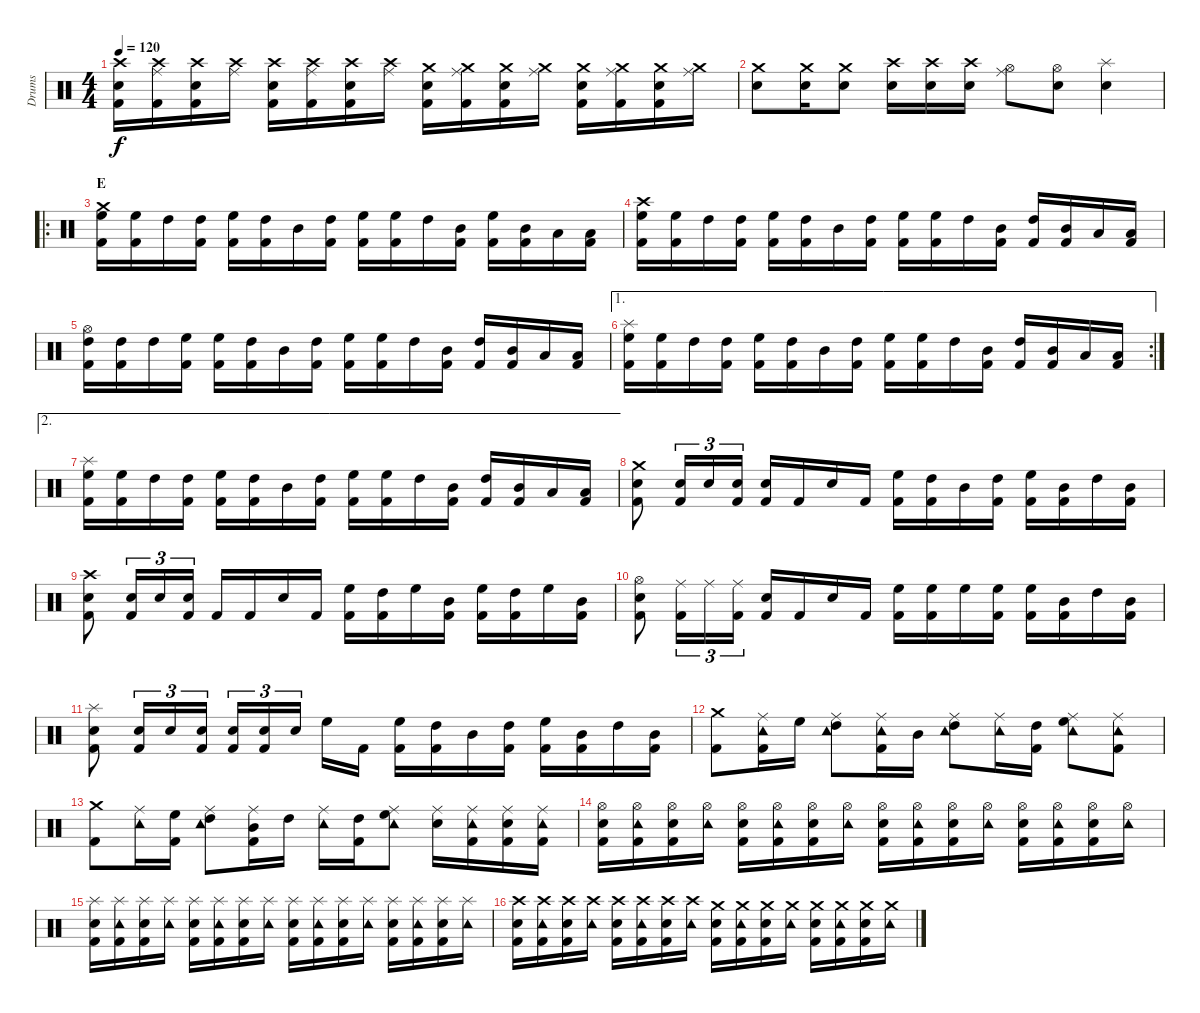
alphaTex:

\track ("Drums" "Drums") {instrument percussion}
\staff {score}
\articulation defaults
\ts (4 4)
\tempo 120
\clef neutral
\ks c
("Crash high (hit)" "Electric Snare (hit)" "Kick (hit) 2").16{dy f} ("Crash high (hit)" "Ride (middle)" "Kick (hit) 2").16 ("Crash high (hit)" "Electric Snare (hit)" "Kick (hit) 2").16 ("Crash high (hit)" "Ride (middle)").16 ("Crash high (hit)" "Electric Snare (hit)" "Kick (hit) 2").16 ("Crash high (hit)" "Ride (middle)" "Kick (hit) 2").16 ("Crash high (hit)" "Electric Snare (hit)" "Kick (hit) 2").16 ("Crash high (hit)" "Ride (middle)").16 ("Crash medium (hit)" "Electric Snare (hit)" "Kick (hit) 2").16 ("Crash medium (hit)" "Ride (middle)" "Kick (hit) 2").16 ("Crash medium (hit)" "Electric Snare (hit)" "Kick (hit) 2").16 ("Crash medium (hit)" "Ride (middle)").16 ("Crash medium (hit)" "Electric Snare (hit)" "Kick (hit) 2").16 ("Crash medium (hit)" "Ride (middle)" "Kick (hit) 2").16 ("Crash medium (hit)" "Electric Snare (hit)" "Kick (hit) 2").16 ("Crash medium (hit)" "Ride (middle)").16 |
("Crash medium (hit)" "Electric Snare (hit)").8 ("Crash medium (hit)" "Snare (hit) 2").16 ("Crash medium (hit)" "Electric Snare (hit)").8 ("Crash high (hit)" "Electric Snare (hit)").16 ("Crash high (hit)" "Snare (hit) 2").16 ("Crash high (hit)" "Electric Snare (hit)").16 ("Hi-Hat (open)" "Ride (middle)").8 ("Hi-Hat (open)" "Electric Snare (hit)").8 ("Splash (hit)" "Electric Snare (hit)").4 |
\ro
\section ("" "E")
("Crash medium (hit)" "High Floor Tom (hit)" "Kick (hit) 2").16 ("High Floor Tom (hit)" "Kick (hit) 2").16 "High Tom (hit)".16 ("High Tom (hit)" "Kick (hit) 2").16 ("High Floor Tom (hit)" "Kick (hit) 2").16 ("High Tom (hit)" "Kick (hit) 2").16 "Mid Tom (hit)".16 ("High Tom (hit)" "Kick (hit) 2").16 ("High Floor Tom (hit)" "Kick (hit) 2").16 ("High Floor Tom (hit)" "Kick (hit) 2").16 "High Tom (hit)".16 ("Mid Tom (hit)" "Kick (hit) 2").16 ("High Floor Tom (hit)" "Kick (hit) 2").16 ("Mid Tom (hit)" "Kick (hit) 2").16 "Low Tom (hit)".16 ("Low Floor Tom (hit)" "Kick (hit) 2").16 |
("Crash high (hit)" "High Floor Tom (hit)" "Kick (hit) 2").16 ("High Floor Tom (hit)" "Kick (hit) 2").16 "High Tom (hit)".16 ("High Tom (hit)" "Kick (hit) 2").16 ("High Floor Tom (hit)" "Kick (hit) 2").16 ("High Tom (hit)" "Kick (hit) 2").16 "Mid Tom (hit)".16 ("High Tom (hit)" "Kick (hit) 2").16 ("High Floor Tom (hit)" "Kick (hit) 2").16 ("High Floor Tom (hit)" "Kick (hit) 2").16 "High Tom (hit)".16 ("Mid Tom (hit)" "Kick (hit) 2").16 ("High Tom (hit)" "Kick (hit) 2").16 ("Mid Tom (hit)" "Kick (hit) 2").16 "Low Tom (hit)".16 ("Low Floor Tom (hit)" "Kick (hit) 2").16 |
("Hi-Hat (open)" "High Tom (hit)" "Kick (hit) 2").16 ("High Tom (hit)" "Kick (hit) 2").16 "High Tom (hit)".16 ("High Floor Tom (hit)" "Kick (hit) 2").16 ("High Floor Tom (hit)" "Kick (hit) 2").16 ("High Tom (hit)" "Kick (hit) 2").16 "Mid Tom (hit)".16 ("High Tom (hit)" "Kick (hit) 2").16 ("High Floor Tom (hit)" "Kick (hit) 2").16 ("High Floor Tom (hit)" "Kick (hit) 2").16 "High Tom (hit)".16 ("Mid Tom (hit)" "Kick (hit) 2").16 ("High Tom (hit)" "Kick (hit) 2").16 ("Mid Tom (hit)" "Kick (hit) 2").16 "Low Tom (hit)".16 ("Low Floor Tom (hit)" "Kick (hit) 2").16 |
\ae 1
\rc 2
("Splash (hit)" "High Floor Tom (hit)" "Kick (hit) 2").16 ("High Floor Tom (hit)" "Kick (hit) 2").16 "High Tom (hit)".16 ("High Tom (hit)" "Kick (hit) 2").16 ("High Floor Tom (hit)" "Kick (hit) 2").16 ("High Tom (hit)" "Kick (hit) 2").16 "Mid Tom (hit)".16 ("High Tom (hit)" "Kick (hit) 2").16 ("High Floor Tom (hit)" "Kick (hit) 2").16 ("High Floor Tom (hit)" "Kick (hit) 2").16 "High Tom (hit)".16 ("Mid Tom (hit)" "Kick (hit) 2").16 ("High Tom (hit)" "Kick (hit) 2").16 ("Mid Tom (hit)" "Kick (hit) 2").16 "Low Tom (hit)".16 ("Low Floor Tom (hit)" "Kick (hit) 2").16 |
\ae 2
("Splash (hit)" "High Floor Tom (hit)" "Kick (hit) 2").16 ("High Floor Tom (hit)" "Kick (hit) 2").16 "High Tom (hit)".16 ("High Tom (hit)" "Kick (hit) 2").16 ("High Floor Tom (hit)" "Kick (hit) 2").16 ("High Tom (hit)" "Kick (hit) 2").16 "Mid Tom (hit)".16 ("High Tom (hit)" "Kick (hit) 2").16 ("High Floor Tom (hit)" "Kick (hit) 2").16 ("High Floor Tom (hit)" "Kick (hit) 2").16 "High Tom (hit)".16 ("Mid Tom (hit)" "Kick (hit) 2").16 ("High Tom (hit)" "Kick (hit) 2").16 ("Mid Tom (hit)" "Kick (hit) 2").16 "Low Tom (hit)".16 ("Low Floor Tom (hit)" "Kick (hit) 2").16 |
("Crash medium (hit)" "Electric Snare (hit)" "Kick (hit) 2").8 ("Electric Snare (hit)" "Kick (hit) 2").16{tu (3 2)} "Electric Snare (hit)".16{tu (3 2)} ("Electric Snare (hit)" "Kick (hit) 2").16{tu (3 2)} ("Electric Snare (hit)" "Kick (hit) 2").16 "Kick (hit) 2".16 "Electric Snare (hit)".16 "Kick (hit) 2".16 ("High Floor Tom (hit)" "Kick (hit) 2").16 ("High Tom (hit)" "Kick (hit) 2").16 "Mid Tom (hit)".16 ("High Tom (hit)" "Kick (hit) 2").16 ("High Floor Tom (hit)" "Kick (hit) 2").16 ("Mid Tom (hit)" "Kick (hit) 2").16 "High Tom (hit)".16 ("Mid Tom (hit)" "Kick (hit) 2").16 |
("Crash high (hit)" "Electric Snare (hit)" "Kick (hit) 2").8 ("Electric Snare (hit)" "Kick (hit) 2").16{tu (3 2)} "Snare (hit) 2".16{tu (3 2)} ("Electric Snare (hit)" "Kick (hit) 2").16{tu (3 2)} "Kick (hit) 2".16 "Kick (hit) 2".16 "Electric Snare (hit)".16 "Kick (hit) 2".16 ("High Floor Tom (hit)" "Kick (hit) 2").16 ("High Tom (hit)" "Kick (hit) 2").16 "High Floor Tom (hit)".16 ("Mid Tom (hit)" "Kick (hit) 2").16 ("High Floor Tom (hit)" "Kick (hit) 2").16 ("High Tom (hit)" "Kick (hit) 2").16 "High Floor Tom (hit)".16 ("Mid Tom (hit)" "Kick (hit) 2").16 |
("Hi-Hat (open)" "Electric Snare (hit)" "Kick (hit) 2").8 ("Ride (middle)" "Kick (hit) 2").16{tu (3 2)} "Ride (middle)".16{tu (3 2)} ("Ride (middle)" "Kick (hit) 2").16{tu (3 2)} ("Electric Snare (hit)" "Kick (hit) 2").16 "Kick (hit) 2".16 "Electric Snare (hit)".16 "Kick (hit) 2".16 ("High Floor Tom (hit)" "Kick (hit) 2").16 ("High Floor Tom (hit)" "Kick (hit) 2").16 "High Floor Tom (hit)".16 ("High Floor Tom (hit)" "Kick (hit) 2").16 ("High Floor Tom (hit)" "Kick (hit) 2").16 ("Mid Tom (hit)" "Kick (hit) 2").16 "High Tom (hit)".16 ("Mid Tom (hit)" "Kick (hit) 2").16 |
("Splash (hit)" "Electric Snare (hit)" "Kick (hit) 2").8 ("Electric Snare (hit)" "Kick (hit) 2").16{tu (3 2)} "Electric Snare (hit)".16{tu (3 2)} ("Electric Snare (hit)" "Kick (hit) 2").16{tu (3 2)} ("Electric Snare (hit)" "Kick (hit) 2").16{tu (3 2)} ("Electric Snare (hit)" "Kick (hit) 2").16{tu (3 2)} "Electric Snare (hit)".16{tu (3 2)} "High Floor Tom (hit)".16 "Kick (hit) 2".16 ("High Floor Tom (hit)" "Kick (hit) 2").16 ("High Tom (hit)" "Kick (hit) 2").16 "Mid Tom (hit)".16 ("High Tom (hit)" "Kick (hit) 2").16 ("High Floor Tom (hit)" "Kick (hit) 2").16 ("Mid Tom (hit)" "Kick (hit) 2").16 "High Tom (hit)".16 ("Mid Tom (hit)" "Kick (hit) 2").16 |
("Crash medium (hit)" "Kick (hit) 2").8 ("Ride (middle)" "Tambourine (hit)" "Kick (hit) 2").16 "High Floor Tom (hit)".16 ("Ride (middle)" "High Tom (hit)" "Tambourine (hit)").8 ("Ride (middle)" "Tambourine (hit)" "Kick (hit) 2").16 "Mid Tom (hit)".16 ("Ride (middle)" "High Tom (hit)" "Tambourine (hit)").8 ("Ride (middle)" "Tambourine (hit)").16 ("High Tom (hit)" "Kick (hit) 2").16 ("Ride (middle)" "High Floor Tom (hit)" "Tambourine (hit)").8 ("Ride (middle)" "Tambourine (hit)" "Kick (hit) 2").8 |
("Crash medium (hit)" "Kick (hit) 2").8 ("Ride (middle)" "Tambourine (hit)").16 ("High Floor Tom (hit)" "Kick (hit) 2").16 ("Ride (middle)" "High Tom (hit)" "Tambourine (hit)").8 ("Ride (middle)" "Mid Tom (hit)" "Kick (hit) 2").16 "High Tom (hit)".16 ("Ride (middle)" "Tambourine (hit)").16 ("High Tom (hit)" "Kick (hit) 2").16 ("Ride (middle)" "High Floor Tom (hit)" "Tambourine (hit)").8 ("Ride (middle)" "Electric Snare (hit)").16 ("Ride (middle)" "Tambourine (hit)" "Kick (hit) 2").16 ("Ride (middle)" "Electric Snare (hit)" "Kick (hit) 2").16 ("Ride (middle)" "Tambourine (hit)" "Kick (hit) 2").16 |
("Hi-Hat (open)" "Electric Snare (hit)" "Kick (hit) 2").16 ("Hi-Hat (open)" "Tambourine (hit)" "Kick (hit) 2").16 ("Hi-Hat (open)" "Electric Snare (hit)" "Kick (hit) 2").16 ("Hi-Hat (open)" "Tambourine (hit)").16 ("Hi-Hat (open)" "Electric Snare (hit)" "Kick (hit) 2").16 ("Hi-Hat (open)" "Tambourine (hit)" "Kick (hit) 2").16 ("Hi-Hat (open)" "Electric Snare (hit)" "Kick (hit) 2").16 ("Hi-Hat (open)" "Tambourine (hit)").16 ("Hi-Hat (open)" "Electric Snare (hit)" "Kick (hit) 2").16 ("Hi-Hat (open)" "Tambourine (hit)" "Kick (hit) 2").16 ("Hi-Hat (open)" "Electric Snare (hit)" "Kick (hit) 2").16 ("Hi-Hat (open)" "Tambourine (hit)").16 ("Hi-Hat (open)" "Electric Snare (hit)" "Kick (hit) 2").16 ("Hi-Hat (open)" "Tambourine (hit)" "Kick (hit) 2").16 ("Hi-Hat (open)" "Electric Snare (hit)" "Kick (hit) 2").16 ("Hi-Hat (open)" "Tambourine (hit)").16 |
("Splash (hit)" "Electric Snare (hit)" "Kick (hit) 2").16 ("Splash (hit)" "Tambourine (hit)" "Kick (hit) 2").16 ("Splash (hit)" "Electric Snare (hit)" "Kick (hit) 2").16 ("Splash (hit)" "Tambourine (hit)").16 ("Splash (hit)" "Electric Snare (hit)" "Kick (hit) 2").16 ("Splash (hit)" "Tambourine (hit)" "Kick (hit) 2").16 ("Splash (hit)" "Electric Snare (hit)" "Kick (hit) 2").16 ("Splash (hit)" "Tambourine (hit)").16 ("Splash (hit)" "Electric Snare (hit)" "Kick (hit) 2").16 ("Splash (hit)" "Tambourine (hit)" "Kick (hit) 2").16 ("Splash (hit)" "Electric Snare (hit)" "Kick (hit) 2").16 ("Splash (hit)" "Tambourine (hit)").16 ("Splash (hit)" "Electric Snare (hit)" "Kick (hit) 2").16 ("Splash (hit)" "Tambourine (hit)" "Kick (hit) 2").16 ("Splash (hit)" "Electric Snare (hit)" "Kick (hit) 2").16 ("Splash (hit)" "Tambourine (hit)").16 |
("Crash high (hit)" "Electric Snare (hit)" "Kick (hit) 2").16 ("Crash high (hit)" "Tambourine (hit)" "Kick (hit) 2").16 ("Crash high (hit)" "Electric Snare (hit)" "Kick (hit) 2").16 ("Crash high (hit)" "Tambourine (hit)").16 ("Crash high (hit)" "Electric Snare (hit)" "Kick (hit) 2").16 ("Crash high (hit)" "Tambourine (hit)" "Kick (hit) 2").16 ("Crash high (hit)" "Electric Snare (hit)" "Kick (hit) 2").16 ("Crash high (hit)" "Tambourine (hit)").16 ("Crash medium (hit)" "Electric Snare (hit)" "Kick (hit) 2").16 ("Crash medium (hit)" "Tambourine (hit)" "Kick (hit) 2").16 ("Crash medium (hit)" "Electric Snare (hit)" "Kick (hit) 2").16 ("Crash medium (hit)" "Tambourine (hit)").16 ("Crash medium (hit)" "Electric Snare (hit)" "Kick (hit) 2").16 ("Crash medium (hit)" "Tambourine (hit)" "Kick (hit) 2").16 ("Crash medium (hit)" "Electric Snare (hit)" "Kick (hit) 2").16 ("Crash medium (hit)" "Tambourine (hit)").16
